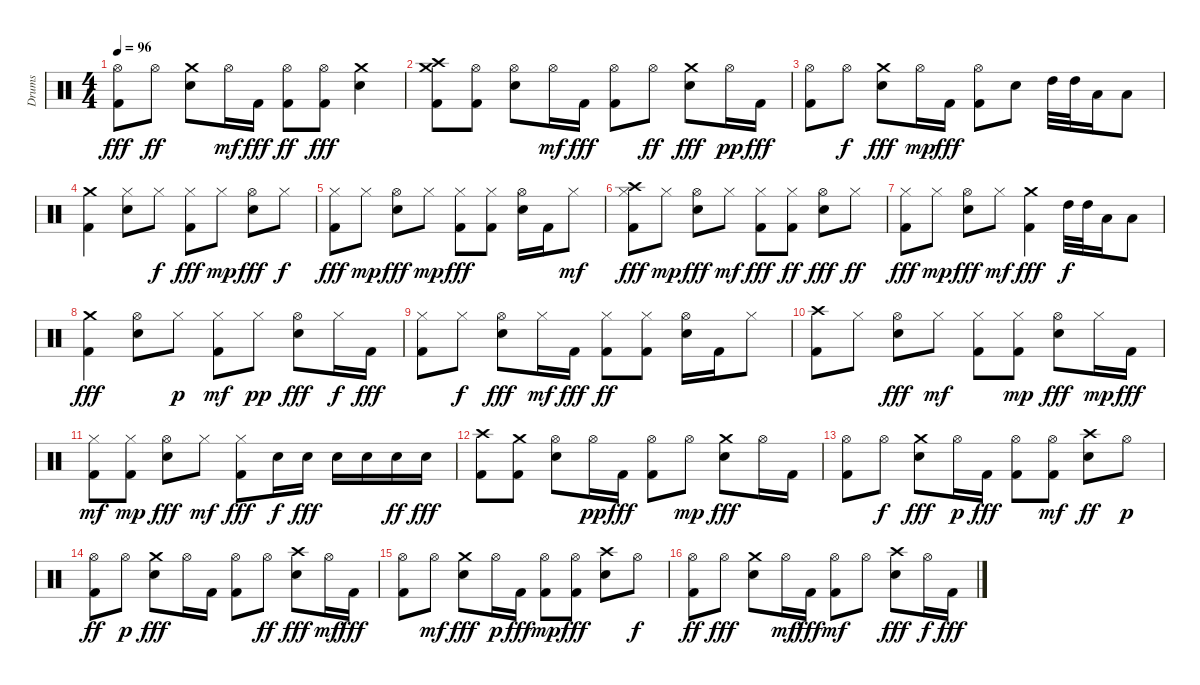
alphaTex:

\track ("Drums" "Drums") {instrument percussion}
\staff {score}
\articulation defaults
\ts (4 4)
\tempo 96
\clef neutral
\ks c
("Kick (hit) 2" "Hi-Hat (open)").8{dy fff} "Hi-Hat (open)".8{dy ff} ("Snare (hit) 2" "Crash medium (hit)").8 "Hi-Hat (open)".16{dy mf} "Kick (hit) 2".16{dy fff} ("Kick (hit) 2" "Hi-Hat (open)").8{dy ff} ("Hi-Hat (open)" "Kick (hit) 2").8{dy fff} ("Snare (hit) 2" "Crash medium (hit)").4 |
("Crash medium (hit)" "Crash high (hit)" "Kick (hit) 2").8 ("Hi-Hat (open)" "Kick (hit) 2").8 ("Hi-Hat (open)" "Snare (hit) 2").8 "Hi-Hat (open)".16{dy mf} "Kick (hit) 2".16{dy fff} ("Hi-Hat (open)" "Kick (hit) 2").8 "Hi-Hat (open)".8{dy ff} ("Crash medium (hit)" "Snare (hit) 2").8{dy fff} "Hi-Hat (open)".16{dy pp} "Kick (hit) 2".16{dy fff} |
("Hi-Hat (open)" "Kick (hit) 2").8 "Hi-Hat (open)".8{dy f} ("Snare (hit) 2" "Crash medium (hit)").8{dy fff} "Hi-Hat (open)".16{dy mp} "Kick (hit) 2".16{dy fff} ("Kick (hit) 2" "Hi-Hat (open)").8 "Snare (hit) 2".8 "High Tom (hit)".32 "High Tom (hit)".32 "Low Tom (hit)".16 "Low Tom (hit)".8 |
("Kick (hit) 2" "Crash medium (hit)").4 ("Snare (hit) 2" "Hi-Hat (closed)").8 "Hi-Hat (closed)".8{dy f} ("Kick (hit) 2" "Hi-Hat (closed)").8{dy fff} "Hi-Hat (closed)".8{dy mp} ("Hi-Hat (open)" "Snare (hit) 2").8{dy fff} "Hi-Hat (closed)".8{dy f} |
("Hi-Hat (closed)" "Kick (hit) 2").8{dy fff} "Hi-Hat (closed)".8{dy mp} ("Hi-Hat (open)" "Snare (hit) 2").8{dy fff} "Hi-Hat (closed)".8{dy mp} ("Kick (hit) 2" "Hi-Hat (closed)").8{dy fff} ("Kick (hit) 2" "Hi-Hat (closed)").8 ("Snare (hit) 2" "Hi-Hat (open)").16 "Kick (hit) 2".16 "Hi-Hat (closed)".8{dy mf} |
("Hi-Hat (closed)" "Crash high (hit)" "Kick (hit) 2").8{dy fff} "Hi-Hat (closed)".8{dy mp} ("Snare (hit) 2" "Hi-Hat (open)").8{dy fff} "Hi-Hat (closed)".8{dy mf} ("Hi-Hat (closed)" "Kick (hit) 2").8{dy fff} ("Hi-Hat (closed)" "Kick (hit) 2").8{dy ff} ("Snare (hit) 2" "Hi-Hat (open)").8{dy fff} "Hi-Hat (closed)".8{dy ff} |
("Hi-Hat (closed)" "Kick (hit) 2").8{dy fff} "Hi-Hat (closed)".8{dy mp} ("Hi-Hat (open)" "Snare (hit) 2").8{dy fff} "Hi-Hat (closed)".8{dy mf} ("Crash medium (hit)" "Kick (hit) 2").4{dy fff} "High Tom (hit)".32{dy f} "High Tom (hit)".32 "Low Tom (hit)".16 "Low Tom (hit)".8 |
("Kick (hit) 2" "Crash medium (hit)").4{dy fff} ("Hi-Hat (open)" "Snare (hit) 2").8 "Hi-Hat (closed)".8{dy p} ("Kick (hit) 2" "Hi-Hat (closed)").8{dy mf} "Hi-Hat (closed)".8{dy pp} ("Hi-Hat (open)" "Snare (hit) 2").8{dy fff} "Hi-Hat (closed)".16{dy f} "Kick (hit) 2".16{dy fff} |
("Hi-Hat (closed)" "Kick (hit) 2").8 "Hi-Hat (closed)".8{dy f} ("Snare (hit) 2" "Hi-Hat (open)").8{dy fff} "Hi-Hat (closed)".16{dy mf} "Kick (hit) 2".16{dy fff} ("Kick (hit) 2" "Hi-Hat (closed)").8{dy ff} ("Hi-Hat (closed)" "Kick (hit) 2").8 ("Snare (hit) 2" "Hi-Hat (open)").16 "Kick (hit) 2".16 "Hi-Hat (closed)".8 |
("Kick (hit) 2" "Crash high (hit)").8 "Hi-Hat (closed)".8 ("Snare (hit) 2" "Hi-Hat (open)").8{dy fff} "Hi-Hat (closed)".8{dy mf} ("Kick (hit) 2" "Hi-Hat (closed)").8 ("Kick (hit) 2" "Hi-Hat (closed)").8{dy mp} ("Hi-Hat (open)" "Snare (hit) 2").8{dy fff} "Hi-Hat (closed)".16{dy mp} "Kick (hit) 2".16{dy fff} |
("Kick (hit) 2" "Hi-Hat (closed)").8{dy mf} ("Kick (hit) 2" "Hi-Hat (closed)").8{dy mp} ("Snare (hit) 2" "Hi-Hat (open)").8{dy fff} "Hi-Hat (closed)".8{dy mf} ("Kick (hit) 2" "Hi-Hat (closed)").8{dy fff} "Snare (hit) 2".16{dy f} "Snare (hit) 2".16{dy fff} "Snare (hit) 2".16 "Snare (hit) 2".16 "Snare (hit) 2".16{dy ff} "Snare (hit) 2".16{dy fff} |
("Crash high (hit)" "Kick (hit) 2").8 ("Crash medium (hit)" "Kick (hit) 2").8 ("Hi-Hat (open)" "Snare (hit) 2").8 "Hi-Hat (open)".16{dy pp} "Kick (hit) 2".16{dy fff} ("Kick (hit) 2" "Hi-Hat (open)").8 "Hi-Hat (open)".8{dy mp} ("Snare (hit) 2" "Crash medium (hit)").8{dy fff} "Hi-Hat (open)".16 "Kick (hit) 2".16 |
("Hi-Hat (open)" "Kick (hit) 2").8 "Hi-Hat (open)".8{dy f} ("Snare (hit) 2" "Crash medium (hit)").8{dy fff} "Hi-Hat (open)".16{dy p} "Kick (hit) 2".16{dy fff} ("Hi-Hat (open)" "Kick (hit) 2").8 ("Kick (hit) 2" "Hi-Hat (open)").8{dy mf} ("Crash high (hit)" "Snare (hit) 2").8{dy ff} "Hi-Hat (open)".8{dy p} |
("Kick (hit) 2" "Hi-Hat (open)").8{dy ff} "Hi-Hat (open)".8{dy p} ("Crash medium (hit)" "Snare (hit) 2").8{dy fff} "Hi-Hat (open)".16 "Kick (hit) 2".16 ("Kick (hit) 2" "Hi-Hat (open)").8 "Hi-Hat (open)".8{dy ff} ("Crash high (hit)" "Snare (hit) 2").8{dy fff} "Hi-Hat (open)".16{dy mf} "Kick (hit) 2".16{dy fff} |
("Kick (hit) 2" "Hi-Hat (open)").8 "Hi-Hat (open)".8{dy mf} ("Snare (hit) 2" "Crash medium (hit)").8{dy fff} "Hi-Hat (open)".16{dy p} "Kick (hit) 2".16{dy fff} ("Kick (hit) 2" "Hi-Hat (open)").8{dy mp} ("Hi-Hat (open)" "Kick (hit) 2").8{dy fff} ("Crash high (hit)" "Snare (hit) 2").8 "Hi-Hat (open)".8{dy f} |
("Kick (hit) 2" "Hi-Hat (open)").8{dy ff} "Hi-Hat (open)".8{dy fff} ("Crash medium (hit)" "Snare (hit) 2").8 "Hi-Hat (open)".16{dy mf} "Kick (hit) 2".16{dy fff} ("Kick (hit) 2" "Hi-Hat (open)").8{dy mf} "Hi-Hat (open)".8 ("Crash high (hit)" "Snare (hit) 2").8{dy fff} "Hi-Hat (open)".16{dy f} "Kick (hit) 2".16{dy fff}
